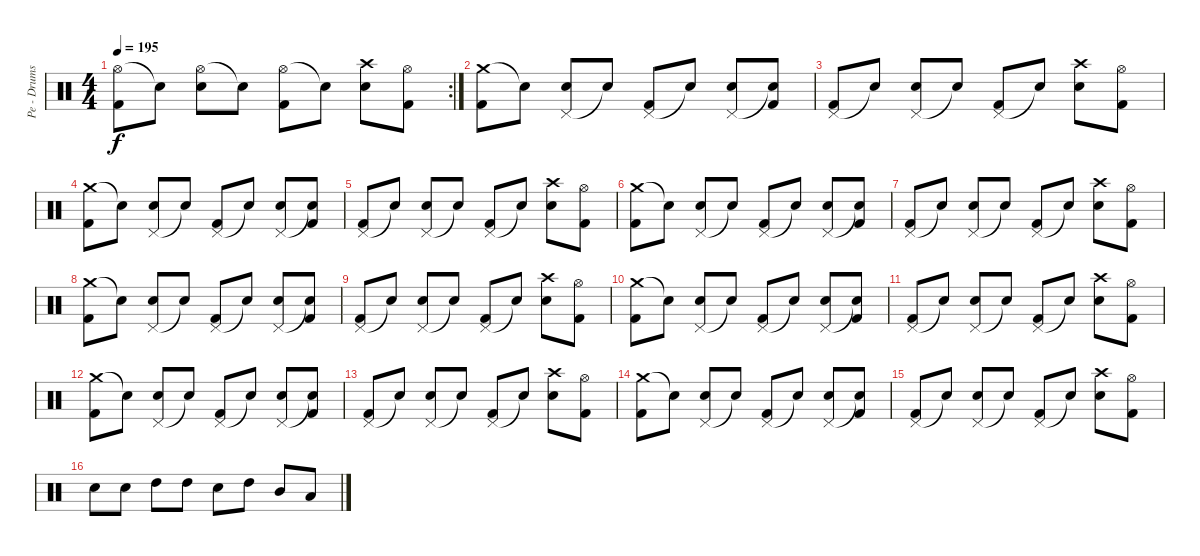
\track ("Pe - Drums" "Pe - Drums") {instrument percussion}
\staff {score}
\articulation defaults
\rc 2
\ts (4 4)
\tempo 195
\clef neutral
\ks c
("Hi-Hat (open)" "Kick (hit) 2").8{dy f} "Snare (hit)"{t}.8 ("Hi-Hat (open)" "Electric Snare (hit)").8 "Snare (hit)"{t}.8 ("Hi-Hat (open)" "Kick (hit) 2").8 "Snare (hit)"{t}.8 ("Crash high (hit)" "Electric Snare (hit)").8 ("Hi-Hat (open)" "Kick (hit) 2").8 |
("Crash medium (hit)" "Kick (hit) 2").8 "Snare (hit)"{t}.8 ("Pedal Hi-Hat (hit)" "Electric Snare (hit)").8 "Snare (hit)"{t}.8 ("Pedal Hi-Hat (hit)" "Kick (hit) 2").8 "Snare (hit)"{t}.8 ("Pedal Hi-Hat (hit)" "Electric Snare (hit)").8 ("Snare (hit)"{t} "Kick (hit) 2").8 |
("Pedal Hi-Hat (hit)" "Kick (hit) 2").8 "Snare (hit)"{t}.8 ("Pedal Hi-Hat (hit)" "Electric Snare (hit)").8 "Snare (hit)"{t}.8 ("Pedal Hi-Hat (hit)" "Kick (hit) 2").8 "Snare (hit)"{t}.8 ("Crash high (hit)" "Electric Snare (hit)").8 ("Hi-Hat (open)" "Kick (hit) 2").8 |
("Crash medium (hit)" "Kick (hit) 2").8 "Snare (hit)"{t}.8 ("Pedal Hi-Hat (hit)" "Electric Snare (hit)").8 "Snare (hit)"{t}.8 ("Pedal Hi-Hat (hit)" "Kick (hit) 2").8 "Snare (hit)"{t}.8 ("Pedal Hi-Hat (hit)" "Electric Snare (hit)").8 ("Snare (hit)"{t} "Kick (hit) 2").8 |
("Pedal Hi-Hat (hit)" "Kick (hit) 2").8 "Snare (hit)"{t}.8 ("Pedal Hi-Hat (hit)" "Electric Snare (hit)").8 "Snare (hit)"{t}.8 ("Pedal Hi-Hat (hit)" "Kick (hit) 2").8 "Snare (hit)"{t}.8 ("Crash high (hit)" "Electric Snare (hit)").8 ("Hi-Hat (open)" "Kick (hit) 2").8 |
("Crash medium (hit)" "Kick (hit) 2").8 "Snare (hit)"{t}.8 ("Pedal Hi-Hat (hit)" "Electric Snare (hit)").8 "Snare (hit)"{t}.8 ("Pedal Hi-Hat (hit)" "Kick (hit) 2").8 "Snare (hit)"{t}.8 ("Pedal Hi-Hat (hit)" "Electric Snare (hit)").8 ("Snare (hit)"{t} "Kick (hit) 2").8 |
("Pedal Hi-Hat (hit)" "Kick (hit) 2").8 "Snare (hit)"{t}.8 ("Pedal Hi-Hat (hit)" "Electric Snare (hit)").8 "Snare (hit)"{t}.8 ("Pedal Hi-Hat (hit)" "Kick (hit) 2").8 "Snare (hit)"{t}.8 ("Crash high (hit)" "Electric Snare (hit)").8 ("Hi-Hat (open)" "Kick (hit) 2").8 |
("Crash medium (hit)" "Kick (hit) 2").8 "Snare (hit)"{t}.8 ("Pedal Hi-Hat (hit)" "Electric Snare (hit)").8 "Snare (hit)"{t}.8 ("Pedal Hi-Hat (hit)" "Kick (hit) 2").8 "Snare (hit)"{t}.8 ("Pedal Hi-Hat (hit)" "Electric Snare (hit)").8 ("Snare (hit)"{t} "Kick (hit) 2").8 |
("Pedal Hi-Hat (hit)" "Kick (hit) 2").8 "Snare (hit)"{t}.8 ("Pedal Hi-Hat (hit)" "Electric Snare (hit)").8 "Snare (hit)"{t}.8 ("Pedal Hi-Hat (hit)" "Kick (hit) 2").8 "Snare (hit)"{t}.8 ("Crash high (hit)" "Electric Snare (hit)").8 ("Hi-Hat (open)" "Kick (hit) 2").8 |
("Crash medium (hit)" "Kick (hit) 2").8 "Snare (hit)"{t}.8 ("Pedal Hi-Hat (hit)" "Electric Snare (hit)").8 "Snare (hit)"{t}.8 ("Pedal Hi-Hat (hit)" "Kick (hit) 2").8 "Snare (hit)"{t}.8 ("Pedal Hi-Hat (hit)" "Electric Snare (hit)").8 ("Snare (hit)"{t} "Kick (hit) 2").8 |
("Pedal Hi-Hat (hit)" "Kick (hit) 2").8 "Snare (hit)"{t}.8 ("Pedal Hi-Hat (hit)" "Electric Snare (hit)").8 "Snare (hit)"{t}.8 ("Pedal Hi-Hat (hit)" "Kick (hit) 2").8 "Snare (hit)"{t}.8 ("Crash high (hit)" "Electric Snare (hit)").8 ("Hi-Hat (open)" "Kick (hit) 2").8 |
("Crash medium (hit)" "Kick (hit) 2").8 "Snare (hit)"{t}.8 ("Pedal Hi-Hat (hit)" "Electric Snare (hit)").8 "Snare (hit)"{t}.8 ("Pedal Hi-Hat (hit)" "Kick (hit) 2").8 "Snare (hit)"{t}.8 ("Pedal Hi-Hat (hit)" "Electric Snare (hit)").8 ("Snare (hit)"{t} "Kick (hit) 2").8 |
("Pedal Hi-Hat (hit)" "Kick (hit) 2").8 "Snare (hit)"{t}.8 ("Pedal Hi-Hat (hit)" "Electric Snare (hit)").8 "Snare (hit)"{t}.8 ("Pedal Hi-Hat (hit)" "Kick (hit) 2").8 "Snare (hit)"{t}.8 ("Crash high (hit)" "Electric Snare (hit)").8 ("Hi-Hat (open)" "Kick (hit) 2").8 |
("Crash medium (hit)" "Kick (hit) 2").8 "Snare (hit)"{t}.8 ("Pedal Hi-Hat (hit)" "Electric Snare (hit)").8 "Snare (hit)"{t}.8 ("Pedal Hi-Hat (hit)" "Kick (hit) 2").8 "Snare (hit)"{t}.8 ("Pedal Hi-Hat (hit)" "Electric Snare (hit)").8 ("Snare (hit)"{t} "Kick (hit) 2").8 |
("Pedal Hi-Hat (hit)" "Kick (hit) 2").8 "Snare (hit)"{t}.8 ("Pedal Hi-Hat (hit)" "Electric Snare (hit)").8 "Snare (hit)"{t}.8 ("Pedal Hi-Hat (hit)" "Kick (hit) 2").8 "Snare (hit)"{t}.8 ("Crash high (hit)" "Electric Snare (hit)").8 ("Hi-Hat (open)" "Kick (hit) 2").8 |
"Electric Snare (hit)".8 "Electric Snare (hit)".8 "High Tom (hit)".8 "High Tom (hit)".8 "Electric Snare (hit)".8 "High Tom (hit)".8 "Mid Tom (hit)".8 "Low Tom (hit)".8
